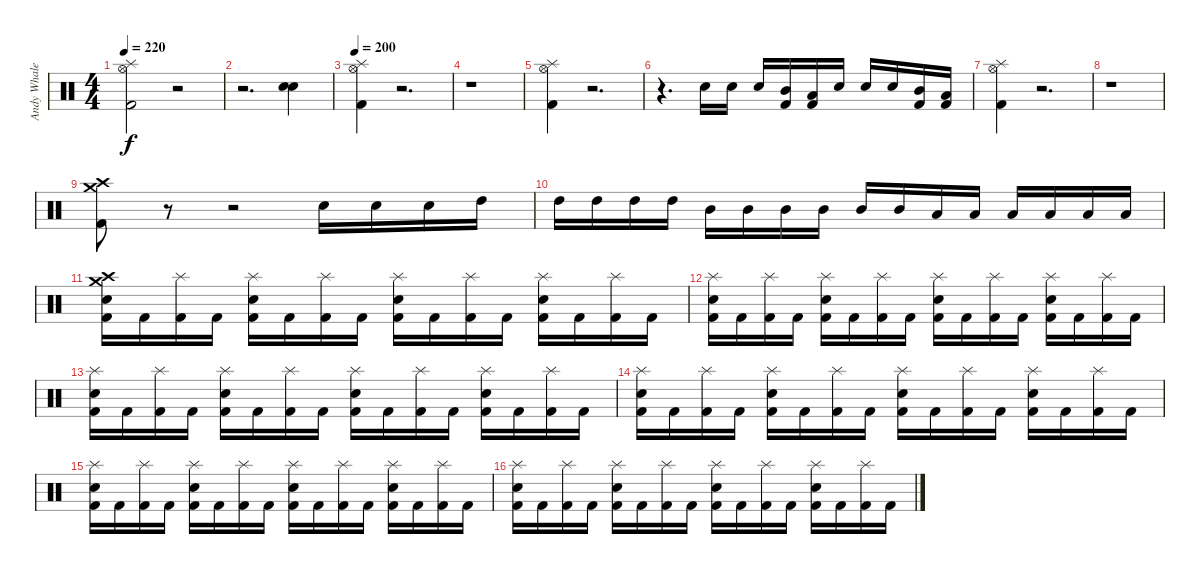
\track ("Andy Whale" "Andy Whale") {instrument percussion}
\staff {score}
\articulation defaults
\ts (4 4)
\tempo 220
\clef neutral
\ks c
("Splash (hit)" "Hi-Hat (open)" "Kick (hit) 2").2{dy f} r.2 |
r.2{d} ("Electric Snare (hit)" "Electric Snare (hit)").4 |
\tempo 200
("Splash (hit)" "Hi-Hat (open)" "Kick (hit) 2").4 r.2{d} |
r.1 |
("Splash (hit)" "Hi-Hat (open)" "Kick (hit) 2").4 r.2{d} |
r.4{d} "Electric Snare (hit)".16 "Electric Snare (hit)".16 "Electric Snare (hit)".16 ("Mid Tom (hit)" "Kick (hit) 2").16 ("Low Tom (hit)" "Kick (hit) 2").16 "Electric Snare (hit)".16 "Electric Snare (hit)".16 "Electric Snare (hit)".16 ("Mid Tom (hit)" "Kick (hit) 2").16 ("Low Tom (hit)" "Kick (hit) 2").16 |
("Splash (hit)" "Hi-Hat (open)" "Kick (hit) 2").4 r.2{d} |
r.1 |
("Crash medium (hit)" "Crash high (hit)" "Kick (hit) 2").8 r.8 r.2 "Electric Snare (hit)".16 "Electric Snare (hit)".16 "Electric Snare (hit)".16 "High Tom (hit)".16 |
"High Tom (hit)".16 "High Tom (hit)".16 "High Tom (hit)".16 "High Tom (hit)".16 "Mid Tom (hit)".16 "Mid Tom (hit)".16 "Mid Tom (hit)".16 "Mid Tom (hit)".16 "Mid Tom (hit)".16 "Mid Tom (hit)".16 "Low Tom (hit)".16 "Low Tom (hit)".16 "Low Tom (hit)".16 "Low Tom (hit)".16 "Low Tom (hit)".16 "Low Tom (hit)".16 |
("Crash medium (hit)" "Crash high (hit)" "Electric Snare (hit)" "Kick (hit) 2").16 "Kick (hit) 2".16 ("Splash (hit)" "Kick (hit) 2").16 "Kick (hit) 2".16 ("Splash (hit)" "Electric Snare (hit)" "Kick (hit) 2").16 "Kick (hit) 2".16 ("Splash (hit)" "Kick (hit) 2").16 "Kick (hit) 2".16 ("Splash (hit)" "Electric Snare (hit)" "Kick (hit) 2").16 "Kick (hit) 2".16 ("Splash (hit)" "Kick (hit) 2").16 "Kick (hit) 2".16 ("Splash (hit)" "Electric Snare (hit)" "Kick (hit) 2").16 "Kick (hit) 2".16 ("Splash (hit)" "Kick (hit) 2").16 "Kick (hit) 2".16 |
("Splash (hit)" "Electric Snare (hit)" "Kick (hit) 2").16 "Kick (hit) 2".16 ("Splash (hit)" "Kick (hit) 2").16 "Kick (hit) 2".16 ("Splash (hit)" "Electric Snare (hit)" "Kick (hit) 2").16 "Kick (hit) 2".16 ("Splash (hit)" "Kick (hit) 2").16 "Kick (hit) 2".16 ("Splash (hit)" "Electric Snare (hit)" "Kick (hit) 2").16 "Kick (hit) 2".16 ("Splash (hit)" "Kick (hit) 2").16 "Kick (hit) 2".16 ("Splash (hit)" "Electric Snare (hit)" "Kick (hit) 2").16 "Kick (hit) 2".16 ("Splash (hit)" "Kick (hit) 2").16 "Kick (hit) 2".16 |
("Splash (hit)" "Electric Snare (hit)" "Kick (hit) 2").16 "Kick (hit) 2".16 ("Splash (hit)" "Kick (hit) 2").16 "Kick (hit) 2".16 ("Splash (hit)" "Electric Snare (hit)" "Kick (hit) 2").16 "Kick (hit) 2".16 ("Splash (hit)" "Kick (hit) 2").16 "Kick (hit) 2".16 ("Splash (hit)" "Electric Snare (hit)" "Kick (hit) 2").16 "Kick (hit) 2".16 ("Splash (hit)" "Kick (hit) 2").16 "Kick (hit) 2".16 ("Splash (hit)" "Electric Snare (hit)" "Kick (hit) 2").16 "Kick (hit) 2".16 ("Splash (hit)" "Kick (hit) 2").16 "Kick (hit) 2".16 |
("Splash (hit)" "Electric Snare (hit)" "Kick (hit) 2").16 "Kick (hit) 2".16 ("Splash (hit)" "Kick (hit) 2").16 "Kick (hit) 2".16 ("Splash (hit)" "Electric Snare (hit)" "Kick (hit) 2").16 "Kick (hit) 2".16 ("Splash (hit)" "Kick (hit) 2").16 "Kick (hit) 2".16 ("Splash (hit)" "Electric Snare (hit)" "Kick (hit) 2").16 "Kick (hit) 2".16 ("Splash (hit)" "Kick (hit) 2").16 "Kick (hit) 2".16 ("Splash (hit)" "Electric Snare (hit)" "Kick (hit) 2").16 "Kick (hit) 2".16 ("Splash (hit)" "Kick (hit) 2").16 "Kick (hit) 2".16 |
("Splash (hit)" "Electric Snare (hit)" "Kick (hit) 2").16 "Kick (hit) 2".16 ("Splash (hit)" "Kick (hit) 2").16 "Kick (hit) 2".16 ("Splash (hit)" "Electric Snare (hit)" "Kick (hit) 2").16 "Kick (hit) 2".16 ("Splash (hit)" "Kick (hit) 2").16 "Kick (hit) 2".16 ("Splash (hit)" "Electric Snare (hit)" "Kick (hit) 2").16 "Kick (hit) 2".16 ("Splash (hit)" "Kick (hit) 2").16 "Kick (hit) 2".16 ("Splash (hit)" "Electric Snare (hit)" "Kick (hit) 2").16 "Kick (hit) 2".16 ("Splash (hit)" "Kick (hit) 2").16 "Kick (hit) 2".16 |
("Splash (hit)" "Electric Snare (hit)" "Kick (hit) 2").16 "Kick (hit) 2".16 ("Splash (hit)" "Kick (hit) 2").16 "Kick (hit) 2".16 ("Splash (hit)" "Electric Snare (hit)" "Kick (hit) 2").16 "Kick (hit) 2".16 ("Splash (hit)" "Kick (hit) 2").16 "Kick (hit) 2".16 ("Splash (hit)" "Electric Snare (hit)" "Kick (hit) 2").16 "Kick (hit) 2".16 ("Splash (hit)" "Kick (hit) 2").16 "Kick (hit) 2".16 ("Splash (hit)" "Electric Snare (hit)" "Kick (hit) 2").16 "Kick (hit) 2".16 ("Splash (hit)" "Kick (hit) 2").16 "Kick (hit) 2".16
